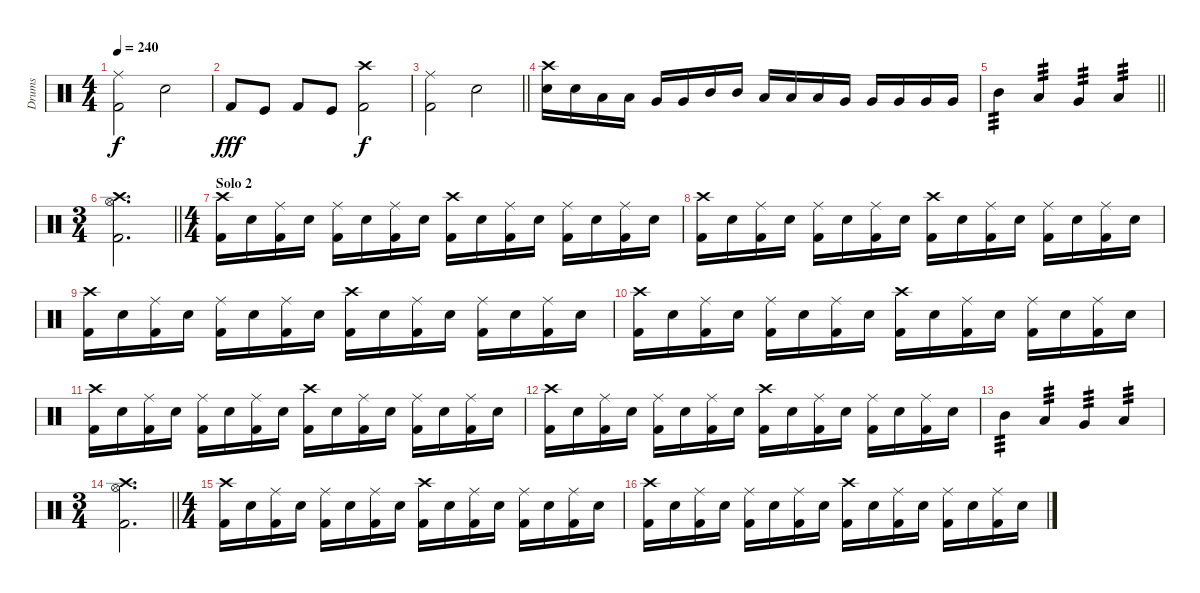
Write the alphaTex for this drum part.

\track ("Drums" "Drums") {instrument percussion}
\staff {score}
\articulation defaults
\ts (4 4)
\tempo 240
\clef neutral
\ks c
("Ride (middle)" "Kick (hit) 2").2{dy f} "Snare (hit) 2".2 |
"Kick (hit) 2".8{dy fff} "Kick (hit)".8 "Kick (hit) 2".8 "Kick (hit)".8 ("Crash high (hit)" "Kick (hit) 2").2{dy f} |
\barLineRight lightlight
("Ride (middle)" "Kick (hit) 2").2 "Snare (hit) 2".2 |
("Crash high (hit)" "Snare (hit) 2").16 "Snare (hit) 2".16 "Low Tom (hit)".16 "Low Tom (hit)".16 "Very Low Tom (hit)".16 "Very Low Tom (hit)".16 "Mid Tom (hit)".16 "Mid Tom (hit)".16 "Low Tom (hit)".16 "Low Tom (hit)".16 "Low Tom (hit)".16 "Very Low Tom (hit)".16 "Very Low Tom (hit)".16 "Very Low Tom (hit)".16 "Very Low Tom (hit)".16 "Very Low Tom (hit)".16 |
\barLineRight lightlight "Mid Tom (hit)".4{tp 3} "Low Tom (hit)".4{tp 3} "Very Low Tom (hit)".4{tp 3} "Low Floor Tom (hit)".4{tp 3}
|
\ts (3 4)
\barLineRight lightlight
("Crash high (hit)" "Hi-Hat (open)" "Kick (hit) 2").2{d} |
\ts (4 4)
\section ("" "Solo 2")
("Crash high (hit)" "Kick (hit) 2").16 "Electric Snare (hit)".16 ("Ride (middle)" "Kick (hit) 2").16 "Electric Snare (hit)".16 ("Ride (middle)" "Kick (hit) 2").16 "Electric Snare (hit)".16 ("Ride (middle)" "Kick (hit) 2").16 "Electric Snare (hit)".16 ("Crash high (hit)" "Kick (hit) 2").16 "Electric Snare (hit)".16 ("Ride (middle)" "Kick (hit) 2").16 "Electric Snare (hit)".16 ("Ride (middle)" "Kick (hit) 2").16 "Electric Snare (hit)".16 ("Ride (middle)" "Kick (hit) 2").16 "Electric Snare (hit)".16 |
("Crash high (hit)" "Kick (hit) 2").16 "Electric Snare (hit)".16 ("Ride (middle)" "Kick (hit) 2").16 "Electric Snare (hit)".16 ("Ride (middle)" "Kick (hit) 2").16 "Electric Snare (hit)".16 ("Ride (middle)" "Kick (hit) 2").16 "Electric Snare (hit)".16 ("Crash high (hit)" "Kick (hit) 2").16 "Electric Snare (hit)".16 ("Ride (middle)" "Kick (hit) 2").16 "Electric Snare (hit)".16 ("Ride (middle)" "Kick (hit) 2").16 "Electric Snare (hit)".16 ("Ride (middle)" "Kick (hit) 2").16 "Electric Snare (hit)".16 |
("Crash high (hit)" "Kick (hit) 2").16 "Electric Snare (hit)".16 ("Ride (middle)" "Kick (hit) 2").16 "Electric Snare (hit)".16 ("Ride (middle)" "Kick (hit) 2").16 "Electric Snare (hit)".16 ("Ride (middle)" "Kick (hit) 2").16 "Electric Snare (hit)".16 ("Crash high (hit)" "Kick (hit) 2").16 "Electric Snare (hit)".16 ("Ride (middle)" "Kick (hit) 2").16 "Electric Snare (hit)".16 ("Ride (middle)" "Kick (hit) 2").16 "Electric Snare (hit)".16 ("Ride (middle)" "Kick (hit) 2").16 "Electric Snare (hit)".16 |
("Crash high (hit)" "Kick (hit) 2").16 "Electric Snare (hit)".16 ("Ride (middle)" "Kick (hit) 2").16 "Electric Snare (hit)".16 ("Ride (middle)" "Kick (hit) 2").16 "Electric Snare (hit)".16 ("Ride (middle)" "Kick (hit) 2").16 "Electric Snare (hit)".16 ("Crash high (hit)" "Kick (hit) 2").16 "Electric Snare (hit)".16 ("Ride (middle)" "Kick (hit) 2").16 "Electric Snare (hit)".16 ("Ride (middle)" "Kick (hit) 2").16 "Electric Snare (hit)".16 ("Ride (middle)" "Kick (hit) 2").16 "Electric Snare (hit)".16 |
("Crash high (hit)" "Kick (hit) 2").16 "Electric Snare (hit)".16 ("Ride (middle)" "Kick (hit) 2").16 "Electric Snare (hit)".16 ("Ride (middle)" "Kick (hit) 2").16 "Electric Snare (hit)".16 ("Ride (middle)" "Kick (hit) 2").16 "Electric Snare (hit)".16 ("Crash high (hit)" "Kick (hit) 2").16 "Electric Snare (hit)".16 ("Ride (middle)" "Kick (hit) 2").16 "Electric Snare (hit)".16 ("Ride (middle)" "Kick (hit) 2").16 "Electric Snare (hit)".16 ("Ride (middle)" "Kick (hit) 2").16 "Electric Snare (hit)".16 |
("Crash high (hit)" "Kick (hit) 2").16 "Electric Snare (hit)".16 ("Ride (middle)" "Kick (hit) 2").16 "Electric Snare (hit)".16 ("Ride (middle)" "Kick (hit) 2").16 "Electric Snare (hit)".16 ("Ride (middle)" "Kick (hit) 2").16 "Electric Snare (hit)".16 ("Crash high (hit)" "Kick (hit) 2").16 "Electric Snare (hit)".16 ("Ride (middle)" "Kick (hit) 2").16 "Electric Snare (hit)".16 ("Ride (middle)" "Kick (hit) 2").16 "Electric Snare (hit)".16 ("Ride (middle)" "Kick (hit) 2").16 "Electric Snare (hit)".16 |
"Mid Tom (hit)".4{tp 3} "Low Tom (hit)".4{tp 3} "Very Low Tom (hit)".4{tp 3} "Low Floor Tom (hit)".4{tp 3} |
\ts (3 4)
\barLineRight lightlight
("Crash high (hit)" "Hi-Hat (open)" "Kick (hit) 2").2{d} |
\ts (4 4)
("Crash high (hit)" "Kick (hit) 2").16 "Electric Snare (hit)".16 ("Ride (middle)" "Kick (hit) 2").16 "Electric Snare (hit)".16 ("Ride (middle)" "Kick (hit) 2").16 "Electric Snare (hit)".16 ("Ride (middle)" "Kick (hit) 2").16 "Electric Snare (hit)".16 ("Crash high (hit)" "Kick (hit) 2").16 "Electric Snare (hit)".16 ("Ride (middle)" "Kick (hit) 2").16 "Electric Snare (hit)".16 ("Ride (middle)" "Kick (hit) 2").16 "Electric Snare (hit)".16 ("Ride (middle)" "Kick (hit) 2").16 "Electric Snare (hit)".16 |
("Crash high (hit)" "Kick (hit) 2").16 "Electric Snare (hit)".16 ("Ride (middle)" "Kick (hit) 2").16 "Electric Snare (hit)".16 ("Ride (middle)" "Kick (hit) 2").16 "Electric Snare (hit)".16 ("Ride (middle)" "Kick (hit) 2").16 "Electric Snare (hit)".16 ("Crash high (hit)" "Kick (hit) 2").16 "Electric Snare (hit)".16 ("Ride (middle)" "Kick (hit) 2").16 "Electric Snare (hit)".16 ("Ride (middle)" "Kick (hit) 2").16 "Electric Snare (hit)".16 ("Ride (middle)" "Kick (hit) 2").16 "Electric Snare (hit)".16
